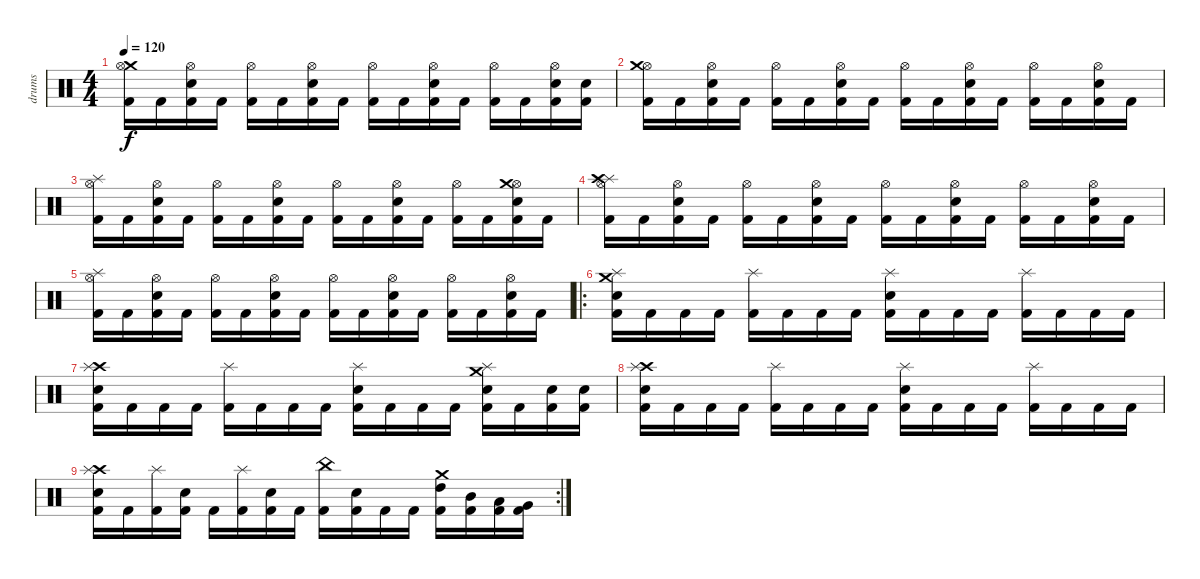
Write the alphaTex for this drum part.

\track ("drums" "drums") {instrument percussion}
\staff {score}
\articulation defaults
\ts (4 4)
\tempo 120
\clef neutral
\ks c
("Crash medium (hit)" "Hi-Hat (open)" "Kick (hit) 2").16{dy f} "Kick (hit) 2".16 ("Hi-Hat (open)" "Kick (hit) 2" "Electric Snare (hit)").16 "Kick (hit) 2".16 ("Hi-Hat (open)" "Kick (hit) 2").16 "Kick (hit) 2".16 ("Hi-Hat (open)" "Kick (hit) 2" "Electric Snare (hit)").16 "Kick (hit) 2".16 ("Hi-Hat (open)" "Kick (hit) 2").16 "Kick (hit) 2".16 ("Hi-Hat (open)" "Kick (hit) 2" "Electric Snare (hit)").16 "Kick (hit) 2".16 ("Hi-Hat (open)" "Kick (hit) 2").16 "Kick (hit) 2".16 ("Hi-Hat (open)" "Kick (hit) 2" "Electric Snare (hit)").16 ("Kick (hit) 2" "Electric Snare (hit)").16 |
("Hi-Hat (open)" "Kick (hit) 2" "Crash medium (hit)").16 "Kick (hit) 2".16 ("Hi-Hat (open)" "Kick (hit) 2" "Electric Snare (hit)").16 "Kick (hit) 2".16 ("Hi-Hat (open)" "Kick (hit) 2").16 "Kick (hit) 2".16 ("Hi-Hat (open)" "Kick (hit) 2" "Electric Snare (hit)").16 "Kick (hit) 2".16 ("Hi-Hat (open)" "Kick (hit) 2").16 "Kick (hit) 2".16 ("Hi-Hat (open)" "Kick (hit) 2" "Electric Snare (hit)").16 "Kick (hit) 2".16 ("Hi-Hat (open)" "Kick (hit) 2").16 "Kick (hit) 2".16 ("Hi-Hat (open)" "Kick (hit) 2" "Electric Snare (hit)").16 "Kick (hit) 2".16 |
("Hi-Hat (open)" "Kick (hit) 2" "Splash (hit)").16 "Kick (hit) 2".16 ("Hi-Hat (open)" "Kick (hit) 2" "Electric Snare (hit)").16 "Kick (hit) 2".16 ("Hi-Hat (open)" "Kick (hit) 2").16 "Kick (hit) 2".16 ("Hi-Hat (open)" "Kick (hit) 2" "Electric Snare (hit)").16 "Kick (hit) 2".16 ("Hi-Hat (open)" "Kick (hit) 2").16 "Kick (hit) 2".16 ("Hi-Hat (open)" "Kick (hit) 2" "Electric Snare (hit)").16 "Kick (hit) 2".16 ("Hi-Hat (open)" "Kick (hit) 2").16 "Kick (hit) 2".16 ("Hi-Hat (open)" "Kick (hit) 2" "Electric Snare (hit)" "Crash medium (hit)").16 "Kick (hit) 2".16 |
("Hi-Hat (open)" "Kick (hit) 2" "Splash (hit)" "Crash high (hit)").16 "Kick (hit) 2".16 ("Hi-Hat (open)" "Kick (hit) 2" "Electric Snare (hit)").16 "Kick (hit) 2".16 ("Hi-Hat (open)" "Kick (hit) 2").16 "Kick (hit) 2".16 ("Hi-Hat (open)" "Kick (hit) 2" "Electric Snare (hit)").16 "Kick (hit) 2".16 ("Hi-Hat (open)" "Kick (hit) 2").16 "Kick (hit) 2".16 ("Hi-Hat (open)" "Kick (hit) 2" "Electric Snare (hit)").16 "Kick (hit) 2".16 ("Hi-Hat (open)" "Kick (hit) 2").16 "Kick (hit) 2".16 ("Hi-Hat (open)" "Kick (hit) 2" "Electric Snare (hit)").16 "Kick (hit) 2".16 |
("Hi-Hat (open)" "Kick (hit) 2" "Splash (hit)").16 "Kick (hit) 2".16 ("Hi-Hat (open)" "Kick (hit) 2" "Electric Snare (hit)").16 "Kick (hit) 2".16 ("Hi-Hat (open)" "Kick (hit) 2").16 "Kick (hit) 2".16 ("Hi-Hat (open)" "Kick (hit) 2" "Electric Snare (hit)").16 "Kick (hit) 2".16 ("Hi-Hat (open)" "Kick (hit) 2").16 "Kick (hit) 2".16 ("Hi-Hat (open)" "Kick (hit) 2" "Electric Snare (hit)").16 "Kick (hit) 2".16 ("Hi-Hat (open)" "Kick (hit) 2").16 "Kick (hit) 2".16 ("Hi-Hat (open)" "Kick (hit) 2" "Electric Snare (hit)").16 "Kick (hit) 2".16 |
\ro
("Crash medium (hit)" "Splash (hit)" "Kick (hit) 2" "Electric Snare (hit)").16 "Kick (hit) 2".16 "Kick (hit) 2".16 "Kick (hit) 2".16 ("Splash (hit)" "Kick (hit) 2").16 "Kick (hit) 2".16 "Kick (hit) 2".16 "Kick (hit) 2".16 ("Splash (hit)" "Kick (hit) 2" "Electric Snare (hit)").16 "Kick (hit) 2".16 "Kick (hit) 2".16 "Kick (hit) 2".16 ("Splash (hit)" "Kick (hit) 2").16 "Kick (hit) 2".16 "Kick (hit) 2".16 "Kick (hit) 2".16 |
("Crash high (hit)" "Splash (hit)" "Kick (hit) 2" "Electric Snare (hit)").16 "Kick (hit) 2".16 "Kick (hit) 2".16 "Kick (hit) 2".16 ("Splash (hit)" "Kick (hit) 2").16 "Kick (hit) 2".16 "Kick (hit) 2".16 "Kick (hit) 2".16 ("Splash (hit)" "Kick (hit) 2" "Electric Snare (hit)").16 "Kick (hit) 2".16 "Kick (hit) 2".16 "Kick (hit) 2".16 ("Splash (hit)" "Kick (hit) 2" "Electric Snare (hit)" "Crash medium (hit)").16 "Kick (hit) 2".16 ("Kick (hit) 2" "Electric Snare (hit)").16 ("Kick (hit) 2" "Electric Snare (hit)").16 |
("Crash high (hit)" "Splash (hit)" "Kick (hit) 2" "Electric Snare (hit)").16 "Kick (hit) 2".16 "Kick (hit) 2".16 "Kick (hit) 2".16 ("Splash (hit)" "Kick (hit) 2").16 "Kick (hit) 2".16 "Kick (hit) 2".16 "Kick (hit) 2".16 ("Splash (hit)" "Kick (hit) 2" "Electric Snare (hit)").16 "Kick (hit) 2".16 "Kick (hit) 2".16 "Kick (hit) 2".16 ("Splash (hit)" "Kick (hit) 2").16 "Kick (hit) 2".16 "Kick (hit) 2".16 "Kick (hit) 2".16 |
\rc 2
("Crash high (hit)" "Splash (hit)" "Kick (hit) 2" "Electric Snare (hit)").16 "Kick (hit) 2".16 ("Splash (hit)" "Kick (hit) 2").16 ("Kick (hit) 2" "Electric Snare (hit)").16 "Kick (hit) 2".16 ("Splash (hit)" "Kick (hit) 2").16 ("Kick (hit) 2" "Electric Snare (hit)").16 "Kick (hit) 2".16 ("China (hit)" "Kick (hit) 2").16 ("Kick (hit) 2" "Electric Snare (hit)").16 "Kick (hit) 2".16 "Kick (hit) 2".16 ("Crash medium (hit)" "Kick (hit) 2" "High Tom (hit)").16 ("Kick (hit) 2" "Mid Tom (hit)").16 ("Kick (hit) 2" "Low Tom (hit)").16 ("Kick (hit) 2" "Very Low Tom (hit)").16
